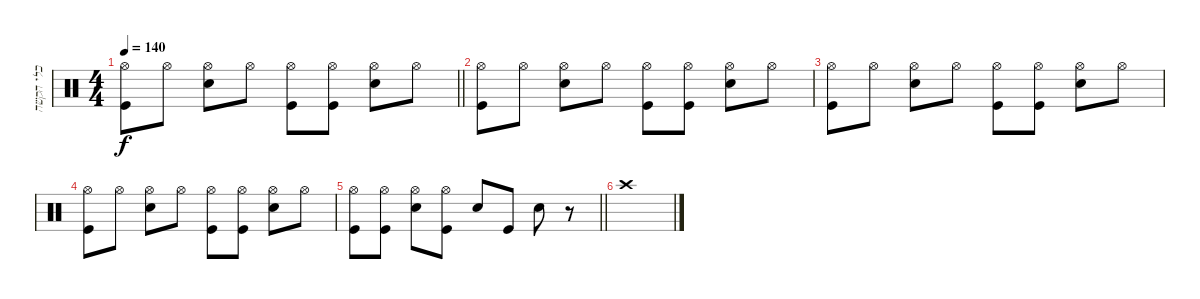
\track ("כלי הקשה" "כלי הקשה") {instrument percussion}
\staff {score}
\articulation defaults
\ts (4 4)
\tempo 140
\clef neutral
\barLineRight lightlight
\ks c
("Kick (hit)" "Hi-Hat (open)").8{dy f} "Hi-Hat (open)".8 ("Snare (hit) 2" "Hi-Hat (open)").8 "Hi-Hat (open)".8 ("Kick (hit)" "Hi-Hat (open)").8 ("Kick (hit)" "Hi-Hat (open)").8 ("Snare (hit) 2" "Hi-Hat (open)").8 "Hi-Hat (open)".8 |
("Kick (hit)" "Hi-Hat (open)").8 "Hi-Hat (open)".8 ("Snare (hit) 2" "Hi-Hat (open)").8 "Hi-Hat (open)".8 ("Kick (hit)" "Hi-Hat (open)").8 ("Kick (hit)" "Hi-Hat (open)").8 ("Snare (hit) 2" "Hi-Hat (open)").8 "Hi-Hat (open)".8 |
("Kick (hit)" "Hi-Hat (open)").8 "Hi-Hat (open)".8 ("Snare (hit) 2" "Hi-Hat (open)").8 "Hi-Hat (open)".8 ("Kick (hit)" "Hi-Hat (open)").8 ("Kick (hit)" "Hi-Hat (open)").8 ("Snare (hit) 2" "Hi-Hat (open)").8 "Hi-Hat (open)".8 |
("Kick (hit)" "Hi-Hat (open)").8 "Hi-Hat (open)".8 ("Snare (hit) 2" "Hi-Hat (open)").8 "Hi-Hat (open)".8 ("Kick (hit)" "Hi-Hat (open)").8 ("Kick (hit)" "Hi-Hat (open)").8 ("Snare (hit) 2" "Hi-Hat (open)").8 "Hi-Hat (open)".8 |
\barLineRight lightlight
("Kick (hit)" "Hi-Hat (open)").8 ("Kick (hit)" "Hi-Hat (open)").8 ("Snare (hit) 2" "Hi-Hat (open)").8 ("Kick (hit)" "Hi-Hat (open)").8 "Snare (hit) 2".8 "Kick (hit)".8 "Snare (hit) 2".8 r.8 |
"Crash high (hit)".1
